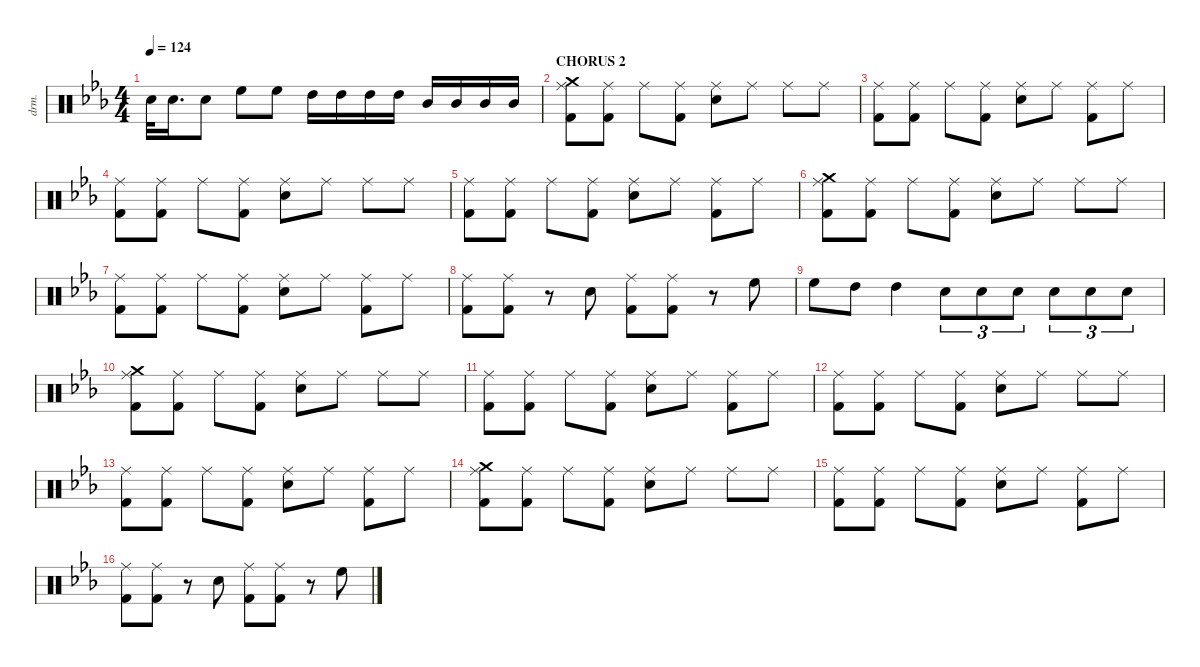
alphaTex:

\defaultSystemsLayout 4
\hideDynamics
\bracketExtendMode nobrackets
\otherSystemsTrackNameOrientation horizontal
\track ("Drumkit" "drm.") {instrument percussion}
\staff {score}
\articulation defaults
\ts (4 4)
\tempo 124
\clef neutral
\ks cminor "Snare (hit) 2"{acc forcenatural}.32{dy mf beam Down} "Snare (hit) 2"{acc forcenatural}.16{d beam Down} "Snare (hit) 2"{acc forcenatural}.8{beam Down} "High Floor Tom (hit)"{acc forcenatural}.8{beam Down} "High Floor Tom (hit)"{acc forcenatural}.8{beam Down} "High Tom (hit)"{acc forcenatural}.16{beam Down} "High Tom (hit)"{acc forcenatural}.16{beam Down} "High Tom (hit)"{acc forcenatural}.16{beam Down} "High Tom (hit)"{acc forcenatural}.16{beam Down} "Mid Tom (hit)"{acc forcenatural}.16{beam Up} "Mid Tom (hit)"{acc forcenatural}.16{beam Up} "Mid Tom (hit)"{acc forcenatural}.16{beam Up} "Mid Tom (hit)"{acc forcenatural}.16{beam Up}
|
\section ("" "CHORUS 2")
("Ride (middle)"{acc forcenatural} "Kick (hit) 2"{acc forcenatural} "Crash medium (hit)"{acc forcenatural}).8{beam Down} ("Ride (middle)"{acc forcenatural} "Kick (hit) 2"{acc forcenatural}).8{beam Down} "Ride (middle)"{acc forcenatural}.8{beam Down} ("Ride (middle)"{acc forcenatural} "Kick (hit) 2"{acc forcenatural}).8{beam Down} ("Ride (middle)"{acc forcenatural} "Snare (hit) 2"{acc forcenatural}).8{beam Down} "Ride (middle)"{acc forcenatural}.8{beam Down} "Ride (middle)"{acc forcenatural}.8{beam Down} "Ride (middle)"{acc forcenatural}.8{beam Down} |
("Ride (middle)"{acc forcenatural} "Kick (hit) 2"{acc forcenatural}).8{beam Down} ("Ride (middle)"{acc forcenatural} "Kick (hit) 2"{acc forcenatural}).8{beam Down} "Ride (middle)"{acc forcenatural}.8{beam Down} ("Ride (middle)"{acc forcenatural} "Kick (hit) 2"{acc forcenatural}).8{beam Down} ("Ride (middle)"{acc forcenatural} "Snare (hit) 2"{acc forcenatural}).8{beam Down} "Ride (middle)"{acc forcenatural}.8{beam Down} ("Ride (middle)"{acc forcenatural} "Kick (hit) 2"{acc forcenatural}).8{beam Down} "Ride (middle)"{acc forcenatural}.8{beam Down} |
("Ride (middle)"{acc forcenatural} "Kick (hit) 2"{acc forcenatural}).8{beam Down} ("Ride (middle)"{acc forcenatural} "Kick (hit) 2"{acc forcenatural}).8{beam Down} "Ride (middle)"{acc forcenatural}.8{beam Down} ("Ride (middle)"{acc forcenatural} "Kick (hit) 2"{acc forcenatural}).8{beam Down} ("Ride (middle)"{acc forcenatural} "Snare (hit) 2"{acc forcenatural}).8{beam Down} "Ride (middle)"{acc forcenatural}.8{beam Down} "Ride (middle)"{acc forcenatural}.8{beam Down} "Ride (middle)"{acc forcenatural}.8{beam Down} |
("Ride (middle)"{acc forcenatural} "Kick (hit) 2"{acc forcenatural}).8{beam Down} ("Ride (middle)"{acc forcenatural} "Kick (hit) 2"{acc forcenatural}).8{beam Down} "Ride (middle)"{acc forcenatural}.8{beam Down} ("Ride (middle)"{acc forcenatural} "Kick (hit) 2"{acc forcenatural}).8{beam Down} ("Ride (middle)"{acc forcenatural} "Snare (hit) 2"{acc forcenatural}).8{beam Down} "Ride (middle)"{acc forcenatural}.8{beam Down} ("Ride (middle)"{acc forcenatural} "Kick (hit) 2"{acc forcenatural}).8{beam Down} "Ride (middle)"{acc forcenatural}.8{beam Down} |
("Ride (middle)"{acc forcenatural} "Kick (hit) 2"{acc forcenatural} "Crash medium (hit)"{acc forcenatural}).8{beam Down} ("Ride (middle)"{acc forcenatural} "Kick (hit) 2"{acc forcenatural}).8{beam Down} "Ride (middle)"{acc forcenatural}.8{beam Down} ("Ride (middle)"{acc forcenatural} "Kick (hit) 2"{acc forcenatural}).8{beam Down} ("Ride (middle)"{acc forcenatural} "Snare (hit) 2"{acc forcenatural}).8{beam Down} "Ride (middle)"{acc forcenatural}.8{beam Down} "Ride (middle)"{acc forcenatural}.8{beam Down} "Ride (middle)"{acc forcenatural}.8{beam Down} |
("Ride (middle)"{acc forcenatural} "Kick (hit) 2"{acc forcenatural}).8{beam Down} ("Ride (middle)"{acc forcenatural} "Kick (hit) 2"{acc forcenatural}).8{beam Down} "Ride (middle)"{acc forcenatural}.8{beam Down} ("Ride (middle)"{acc forcenatural} "Kick (hit) 2"{acc forcenatural}).8{beam Down} ("Ride (middle)"{acc forcenatural} "Snare (hit) 2"{acc forcenatural}).8{beam Down} "Ride (middle)"{acc forcenatural}.8{beam Down} ("Ride (middle)"{acc forcenatural} "Kick (hit) 2"{acc forcenatural}).8{beam Down} "Ride (middle)"{acc forcenatural}.8{beam Down} |
("Ride (middle)"{acc forcenatural} "Kick (hit) 2"{acc forcenatural}).8{beam Down} ("Ride (middle)"{acc forcenatural} "Kick (hit) 2"{acc forcenatural}).8{beam Down} r.8{beam Down} "Snare (hit) 2"{acc forcenatural}.8{beam Down} ("Ride (middle)"{acc forcenatural} "Kick (hit) 2"{acc forcenatural}).8{beam Down} ("Ride (middle)"{acc forcenatural} "Kick (hit) 2"{acc forcenatural}).8{beam Down} r.8{beam Down} "High Floor Tom (hit)"{acc forcenatural}.8{beam Down} |
"High Floor Tom (hit)"{acc forcenatural}.8{beam Down} "High Tom (hit)"{acc forcenatural}.8{beam Down} "High Tom (hit)"{acc forcenatural}.4{beam Down} "Snare (hit) 2"{acc forcenatural}.8{tu (3 2) beam Down} "Snare (hit) 2"{acc forcenatural}.8{tu (3 2) beam Down} "Snare (hit) 2"{acc forcenatural}.8{tu (3 2) beam Down} "Snare (hit) 2"{acc forcenatural}.8{tu (3 2) beam Down} "Snare (hit) 2"{acc forcenatural}.8{tu (3 2) beam Down} "Snare (hit) 2"{acc forcenatural}.8{tu (3 2) beam Down} |
("Ride (middle)"{acc forcenatural} "Kick (hit) 2"{acc forcenatural} "Crash medium (hit)"{acc forcenatural}).8{beam Down} ("Ride (middle)"{acc forcenatural} "Kick (hit) 2"{acc forcenatural}).8{beam Down} "Ride (middle)"{acc forcenatural}.8{beam Down} ("Ride (middle)"{acc forcenatural} "Kick (hit) 2"{acc forcenatural}).8{beam Down} ("Ride (middle)"{acc forcenatural} "Snare (hit) 2"{acc forcenatural}).8{beam Down} "Ride (middle)"{acc forcenatural}.8{beam Down} "Ride (middle)"{acc forcenatural}.8{beam Down} "Ride (middle)"{acc forcenatural}.8{beam Down} |
("Ride (middle)"{acc forcenatural} "Kick (hit) 2"{acc forcenatural}).8{beam Down} ("Ride (middle)"{acc forcenatural} "Kick (hit) 2"{acc forcenatural}).8{beam Down} "Ride (middle)"{acc forcenatural}.8{beam Down} ("Ride (middle)"{acc forcenatural} "Kick (hit) 2"{acc forcenatural}).8{beam Down} ("Ride (middle)"{acc forcenatural} "Snare (hit) 2"{acc forcenatural}).8{beam Down} "Ride (middle)"{acc forcenatural}.8{beam Down} ("Ride (middle)"{acc forcenatural} "Kick (hit) 2"{acc forcenatural}).8{beam Down} "Ride (middle)"{acc forcenatural}.8{beam Down} |
("Ride (middle)"{acc forcenatural} "Kick (hit) 2"{acc forcenatural}).8{beam Down} ("Ride (middle)"{acc forcenatural} "Kick (hit) 2"{acc forcenatural}).8{beam Down} "Ride (middle)"{acc forcenatural}.8{beam Down} ("Ride (middle)"{acc forcenatural} "Kick (hit) 2"{acc forcenatural}).8{beam Down} ("Ride (middle)"{acc forcenatural} "Snare (hit) 2"{acc forcenatural}).8{beam Down} "Ride (middle)"{acc forcenatural}.8{beam Down} "Ride (middle)"{acc forcenatural}.8{beam Down} "Ride (middle)"{acc forcenatural}.8{beam Down} |
("Ride (middle)"{acc forcenatural} "Kick (hit) 2"{acc forcenatural}).8{beam Down} ("Ride (middle)"{acc forcenatural} "Kick (hit) 2"{acc forcenatural}).8{beam Down} "Ride (middle)"{acc forcenatural}.8{beam Down} ("Ride (middle)"{acc forcenatural} "Kick (hit) 2"{acc forcenatural}).8{beam Down} ("Ride (middle)"{acc forcenatural} "Snare (hit) 2"{acc forcenatural}).8{beam Down} "Ride (middle)"{acc forcenatural}.8{beam Down} ("Ride (middle)"{acc forcenatural} "Kick (hit) 2"{acc forcenatural}).8{beam Down} "Ride (middle)"{acc forcenatural}.8{beam Down} |
("Ride (middle)"{acc forcenatural} "Kick (hit) 2"{acc forcenatural} "Crash medium (hit)"{acc forcenatural}).8{beam Down} ("Ride (middle)"{acc forcenatural} "Kick (hit) 2"{acc forcenatural}).8{beam Down} "Ride (middle)"{acc forcenatural}.8{beam Down} ("Ride (middle)"{acc forcenatural} "Kick (hit) 2"{acc forcenatural}).8{beam Down} ("Ride (middle)"{acc forcenatural} "Snare (hit) 2"{acc forcenatural}).8{beam Down} "Ride (middle)"{acc forcenatural}.8{beam Down} "Ride (middle)"{acc forcenatural}.8{beam Down} "Ride (middle)"{acc forcenatural}.8{beam Down} |
("Ride (middle)"{acc forcenatural} "Kick (hit) 2"{acc forcenatural}).8{beam Down} ("Ride (middle)"{acc forcenatural} "Kick (hit) 2"{acc forcenatural}).8{beam Down} "Ride (middle)"{acc forcenatural}.8{beam Down} ("Ride (middle)"{acc forcenatural} "Kick (hit) 2"{acc forcenatural}).8{beam Down} ("Ride (middle)"{acc forcenatural} "Snare (hit) 2"{acc forcenatural}).8{beam Down} "Ride (middle)"{acc forcenatural}.8{beam Down} ("Ride (middle)"{acc forcenatural} "Kick (hit) 2"{acc forcenatural}).8{beam Down} "Ride (middle)"{acc forcenatural}.8{beam Down} |
("Ride (middle)"{acc forcenatural} "Kick (hit) 2"{acc forcenatural}).8{beam Down} ("Ride (middle)"{acc forcenatural} "Kick (hit) 2"{acc forcenatural}).8{beam Down} r.8{beam Down} "Snare (hit) 2"{acc forcenatural}.8{beam Down} ("Ride (middle)"{acc forcenatural} "Kick (hit) 2"{acc forcenatural}).8{beam Down} ("Ride (middle)"{acc forcenatural} "Kick (hit) 2"{acc forcenatural}).8{beam Down} r.8{beam Down} "High Floor Tom (hit)"{acc forcenatural}.8{beam Down}
